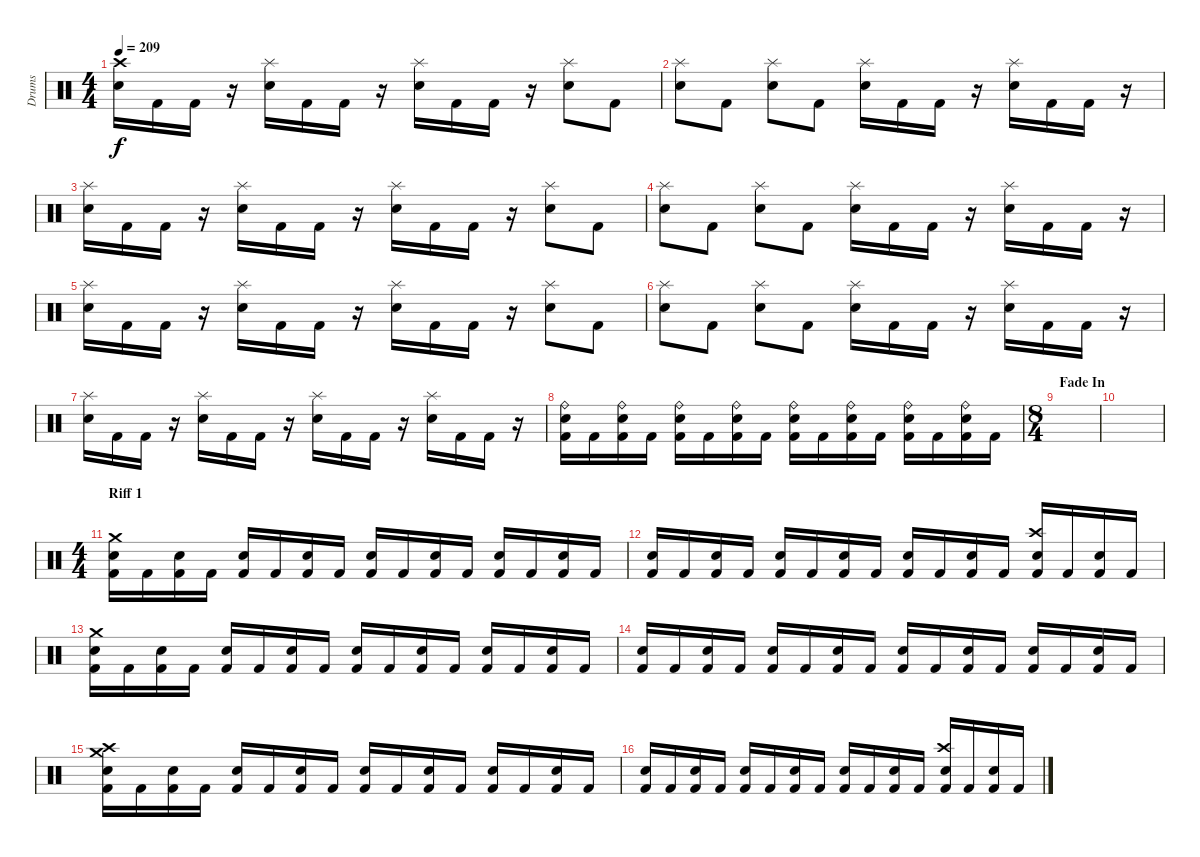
\track ("Drums" "Drums") {instrument percussion}
\staff {score}
\articulation defaults
\ts (4 4)
\tempo 209
\clef neutral
\ks c
("Snare (hit) 2" "Crash high (hit)").16{dy f} "Kick (hit) 2".16 "Kick (hit) 2".16 r.16 ("Snare (hit) 2" "Splash (hit)").16 "Kick (hit) 2".16 "Kick (hit) 2".16 r.16 ("Snare (hit) 2" "Splash (hit)").16 "Kick (hit) 2".16 "Kick (hit) 2".16 r.16 ("Snare (hit) 2" "Splash (hit)").8 "Kick (hit) 2".8 |
("Snare (hit) 2" "Splash (hit)").8 "Kick (hit) 2".8 ("Snare (hit) 2" "Splash (hit)").8 "Kick (hit) 2".8 ("Snare (hit) 2" "Splash (hit)").16 "Kick (hit) 2".16 "Kick (hit) 2".16 r.16 ("Snare (hit) 2" "Splash (hit)").16 "Kick (hit) 2".16 "Kick (hit) 2".16 r.16 |
("Snare (hit) 2" "Splash (hit)").16 "Kick (hit) 2".16 "Kick (hit) 2".16 r.16 ("Snare (hit) 2" "Splash (hit)").16 "Kick (hit) 2".16 "Kick (hit) 2".16 r.16 ("Snare (hit) 2" "Splash (hit)").16 "Kick (hit) 2".16 "Kick (hit) 2".16 r.16 ("Snare (hit) 2" "Splash (hit)").8 "Kick (hit) 2".8 |
("Snare (hit) 2" "Splash (hit)").8 "Kick (hit) 2".8 ("Snare (hit) 2" "Splash (hit)").8 "Kick (hit) 2".8 ("Snare (hit) 2" "Splash (hit)").16 "Kick (hit) 2".16 "Kick (hit) 2".16 r.16 ("Snare (hit) 2" "Splash (hit)").16 "Kick (hit) 2".16 "Kick (hit) 2".16 r.16 |
("Snare (hit) 2" "Splash (hit)").16 "Kick (hit) 2".16 "Kick (hit) 2".16 r.16 ("Snare (hit) 2" "Splash (hit)").16 "Kick (hit) 2".16 "Kick (hit) 2".16 r.16 ("Snare (hit) 2" "Splash (hit)").16 "Kick (hit) 2".16 "Kick (hit) 2".16 r.16 ("Snare (hit) 2" "Splash (hit)").8 "Kick (hit) 2".8 |
("Snare (hit) 2" "Splash (hit)").8 "Kick (hit) 2".8 ("Snare (hit) 2" "Splash (hit)").8 "Kick (hit) 2".8 ("Snare (hit) 2" "Splash (hit)").16 "Kick (hit) 2".16 "Kick (hit) 2".16 r.16 ("Snare (hit) 2" "Splash (hit)").16 "Kick (hit) 2".16 "Kick (hit) 2".16 r.16 |
("Snare (hit) 2" "Splash (hit)").16 "Kick (hit) 2".16 "Kick (hit) 2".16 r.16 ("Snare (hit) 2" "Splash (hit)").16 "Kick (hit) 2".16 "Kick (hit) 2".16 r.16 ("Snare (hit) 2" "Splash (hit)").16 "Kick (hit) 2".16 "Kick (hit) 2".16 r.16 ("Snare (hit) 2" "Splash (hit)").16 "Kick (hit) 2".16 "Kick (hit) 2".16 r.16 |
("Kick (hit) 2" "Snare (hit) 2" "Ride (bell)").16 "Kick (hit) 2".16 ("Kick (hit) 2" "Snare (hit) 2" "Ride (bell)").16 "Kick (hit) 2".16 ("Kick (hit) 2" "Snare (hit) 2" "Ride (bell)").16 "Kick (hit) 2".16 ("Kick (hit) 2" "Snare (hit) 2" "Ride (bell)").16 "Kick (hit) 2".16 ("Kick (hit) 2" "Snare (hit) 2" "Ride (bell)").16 "Kick (hit) 2".16 ("Kick (hit) 2" "Snare (hit) 2" "Ride (bell)").16 "Kick (hit) 2".16 ("Kick (hit) 2" "Snare (hit) 2" "Ride (bell)").16 "Kick (hit) 2".16 ("Kick (hit) 2" "Snare (hit) 2" "Ride (bell)").16 "Kick (hit) 2".16 |
\ts (8 4)
\section ("" "Fade In")
|
|
\ts (4 4)
\section ("" "Riff 1")
("Kick (hit) 2" "Snare (hit) 2" "Crash medium (hit)").16 "Kick (hit) 2".16 ("Kick (hit) 2" "Snare (hit) 2").16 "Kick (hit) 2".16 ("Kick (hit) 2" "Snare (hit) 2").16 "Kick (hit) 2".16 ("Kick (hit) 2" "Snare (hit) 2").16 "Kick (hit) 2".16 ("Kick (hit) 2" "Snare (hit) 2").16 "Kick (hit) 2".16 ("Kick (hit) 2" "Snare (hit) 2").16 "Kick (hit) 2".16 ("Kick (hit) 2" "Snare (hit) 2").16 "Kick (hit) 2".16 ("Kick (hit) 2" "Snare (hit) 2").16 "Kick (hit) 2".16 |
("Kick (hit) 2" "Snare (hit) 2").16 "Kick (hit) 2".16 ("Kick (hit) 2" "Snare (hit) 2").16 "Kick (hit) 2".16 ("Kick (hit) 2" "Snare (hit) 2").16 "Kick (hit) 2".16 ("Kick (hit) 2" "Snare (hit) 2").16 "Kick (hit) 2".16 ("Kick (hit) 2" "Snare (hit) 2").16 "Kick (hit) 2".16 ("Kick (hit) 2" "Snare (hit) 2").16 "Kick (hit) 2".16 ("Kick (hit) 2" "Snare (hit) 2" "Crash high (hit)").16 "Kick (hit) 2".16 ("Kick (hit) 2" "Snare (hit) 2").16 "Kick (hit) 2".16 |
("Kick (hit) 2" "Snare (hit) 2" "Crash medium (hit)").16 "Kick (hit) 2".16 ("Kick (hit) 2" "Snare (hit) 2").16 "Kick (hit) 2".16 ("Kick (hit) 2" "Snare (hit) 2").16 "Kick (hit) 2".16 ("Kick (hit) 2" "Snare (hit) 2").16 "Kick (hit) 2".16 ("Kick (hit) 2" "Snare (hit) 2").16 "Kick (hit) 2".16 ("Kick (hit) 2" "Snare (hit) 2").16 "Kick (hit) 2".16 ("Kick (hit) 2" "Snare (hit) 2").16 "Kick (hit) 2".16 ("Kick (hit) 2" "Snare (hit) 2").16 "Kick (hit) 2".16 |
("Kick (hit) 2" "Snare (hit) 2").16 "Kick (hit) 2".16 ("Kick (hit) 2" "Snare (hit) 2").16 "Kick (hit) 2".16 ("Kick (hit) 2" "Snare (hit) 2").16 "Kick (hit) 2".16 ("Kick (hit) 2" "Snare (hit) 2").16 "Kick (hit) 2".16 ("Kick (hit) 2" "Snare (hit) 2").16 "Kick (hit) 2".16 ("Kick (hit) 2" "Snare (hit) 2").16 "Kick (hit) 2".16 ("Kick (hit) 2" "Snare (hit) 2").16 "Kick (hit) 2".16 ("Kick (hit) 2" "Snare (hit) 2").16 "Kick (hit) 2".16 |
("Kick (hit) 2" "Snare (hit) 2" "Crash high (hit)" "Crash medium (hit)").16 "Kick (hit) 2".16 ("Kick (hit) 2" "Snare (hit) 2").16 "Kick (hit) 2".16 ("Kick (hit) 2" "Snare (hit) 2").16 "Kick (hit) 2".16 ("Kick (hit) 2" "Snare (hit) 2").16 "Kick (hit) 2".16 ("Kick (hit) 2" "Snare (hit) 2").16 "Kick (hit) 2".16 ("Kick (hit) 2" "Snare (hit) 2").16 "Kick (hit) 2".16 ("Kick (hit) 2" "Snare (hit) 2").16 "Kick (hit) 2".16 ("Kick (hit) 2" "Snare (hit) 2").16 "Kick (hit) 2".16 |
("Kick (hit) 2" "Snare (hit) 2").16 "Kick (hit) 2".16 ("Kick (hit) 2" "Snare (hit) 2").16 "Kick (hit) 2".16 ("Kick (hit) 2" "Snare (hit) 2").16 "Kick (hit) 2".16 ("Kick (hit) 2" "Snare (hit) 2").16 "Kick (hit) 2".16 ("Kick (hit) 2" "Snare (hit) 2").16 "Kick (hit) 2".16 ("Kick (hit) 2" "Snare (hit) 2").16 "Kick (hit) 2".16 ("Kick (hit) 2" "Snare (hit) 2" "Crash high (hit)").16 "Kick (hit) 2".16 ("Kick (hit) 2" "Snare (hit) 2").16 "Kick (hit) 2".16
